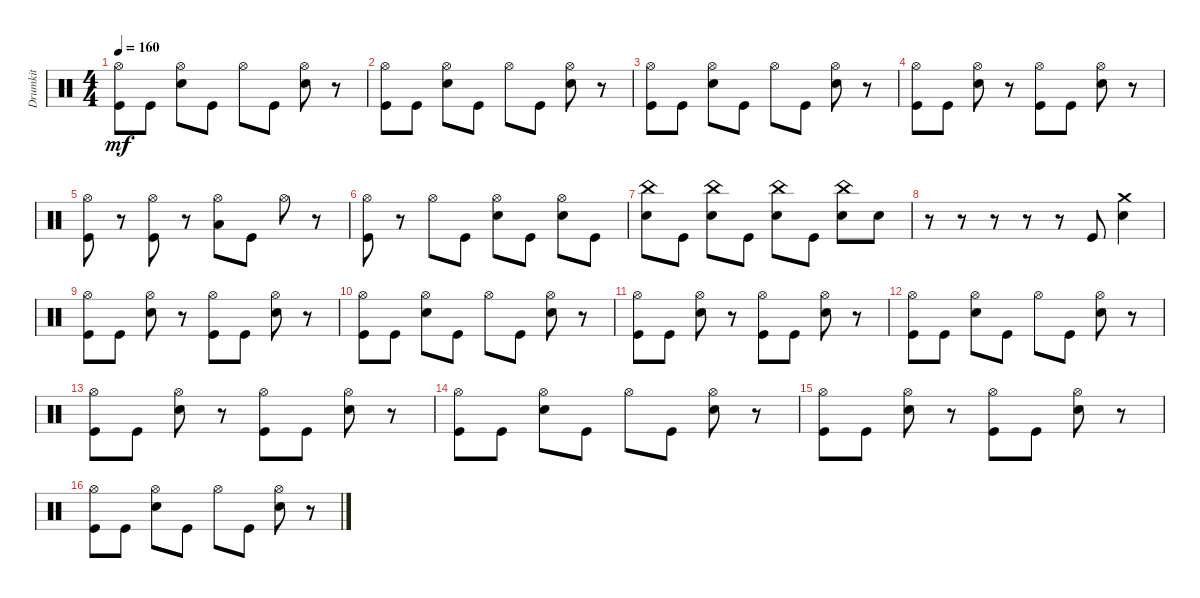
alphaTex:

\track ("Drumkit" "Drumkit") {solo instrument percussion}
\staff {score}
\articulation defaults
\ts (4 4)
\tempo 160
\clef neutral
\ks c
("Hi-Hat (open)" "Kick (hit)").8{dy mf} "Kick (hit)".8 ("Hi-Hat (open)" "Snare (hit) 2").8 "Kick (hit)".8 "Hi-Hat (open)".8 "Kick (hit)".8 ("Hi-Hat (open)" "Snare (hit) 2").8 r.8 |
("Hi-Hat (open)" "Kick (hit)").8 "Kick (hit)".8 ("Hi-Hat (open)" "Snare (hit) 2").8 "Kick (hit)".8 "Hi-Hat (open)".8 "Kick (hit)".8 ("Hi-Hat (open)" "Snare (hit) 2").8 r.8 |
("Hi-Hat (open)" "Kick (hit)").8 "Kick (hit)".8 ("Hi-Hat (open)" "Snare (hit) 2").8 "Kick (hit)".8 "Hi-Hat (open)".8 "Kick (hit)".8 ("Hi-Hat (open)" "Snare (hit) 2").8 r.8 |
("Hi-Hat (open)" "Kick (hit)").8 "Kick (hit)".8 ("Hi-Hat (open)" "Snare (hit) 2").8 r.8 ("Hi-Hat (open)" "Kick (hit)").8 "Kick (hit)".8 ("Hi-Hat (open)" "Snare (hit) 2").8 r.8 |
("Hi-Hat (open)" "Kick (hit)").8 r.8 ("Hi-Hat (open)" "Kick (hit)").8 r.8 ("Hi-Hat (open)" "Low Floor Tom (hit)").8 "Kick (hit)".8 "Hi-Hat (open)".8 r.8 |
("Hi-Hat (open)" "Kick (hit)").8 r.8 "Hi-Hat (open)".8 "Kick (hit)".8 ("Hi-Hat (open)" "Snare (hit) 2").8 "Kick (hit)".8 ("Hi-Hat (open)" "Snare (hit) 2").8 "Kick (hit)".8 |
("Snare (hit) 2" "China (hit)").8 "Kick (hit)".8 ("Snare (hit) 2" "China (hit)").8 "Kick (hit)".8 ("Snare (hit) 2" "China (hit)").8 "Kick (hit)".8 ("Snare (hit) 2" "China (hit)").8 "Snare (hit) 2".8 |
r.8 r.8 r.8 r.8 r.8 "Kick (hit)".8 ("Snare (hit) 2" "Crash medium (hit)").4 |
("Hi-Hat (open)" "Kick (hit)").8 "Kick (hit)".8 ("Hi-Hat (open)" "Snare (hit) 2").8 r.8 ("Hi-Hat (open)" "Kick (hit)").8 "Kick (hit)".8 ("Hi-Hat (open)" "Snare (hit) 2").8 r.8 |
("Hi-Hat (open)" "Kick (hit)").8 "Kick (hit)".8 ("Hi-Hat (open)" "Snare (hit) 2").8 "Kick (hit)".8 "Hi-Hat (open)".8 "Kick (hit)".8 ("Hi-Hat (open)" "Snare (hit) 2").8 r.8 |
("Hi-Hat (open)" "Kick (hit)").8 "Kick (hit)".8 ("Hi-Hat (open)" "Snare (hit) 2").8 r.8 ("Hi-Hat (open)" "Kick (hit)").8 "Kick (hit)".8 ("Hi-Hat (open)" "Snare (hit) 2").8 r.8 |
("Hi-Hat (open)" "Kick (hit)").8 "Kick (hit)".8 ("Hi-Hat (open)" "Snare (hit) 2").8 "Kick (hit)".8 "Hi-Hat (open)".8 "Kick (hit)".8 ("Hi-Hat (open)" "Snare (hit) 2").8 r.8 |
("Hi-Hat (open)" "Kick (hit)").8 "Kick (hit)".8 ("Hi-Hat (open)" "Snare (hit) 2").8 r.8 ("Hi-Hat (open)" "Kick (hit)").8 "Kick (hit)".8 ("Hi-Hat (open)" "Snare (hit) 2").8 r.8 |
("Hi-Hat (open)" "Kick (hit)").8 "Kick (hit)".8 ("Hi-Hat (open)" "Snare (hit) 2").8 "Kick (hit)".8 "Hi-Hat (open)".8 "Kick (hit)".8 ("Hi-Hat (open)" "Snare (hit) 2").8 r.8 |
("Hi-Hat (open)" "Kick (hit)").8 "Kick (hit)".8 ("Hi-Hat (open)" "Snare (hit) 2").8 r.8 ("Hi-Hat (open)" "Kick (hit)").8 "Kick (hit)".8 ("Hi-Hat (open)" "Snare (hit) 2").8 r.8 |
("Hi-Hat (open)" "Kick (hit)").8 "Kick (hit)".8 ("Hi-Hat (open)" "Snare (hit) 2").8 "Kick (hit)".8 "Hi-Hat (open)".8 "Kick (hit)".8 ("Hi-Hat (open)" "Snare (hit) 2").8 r.8
